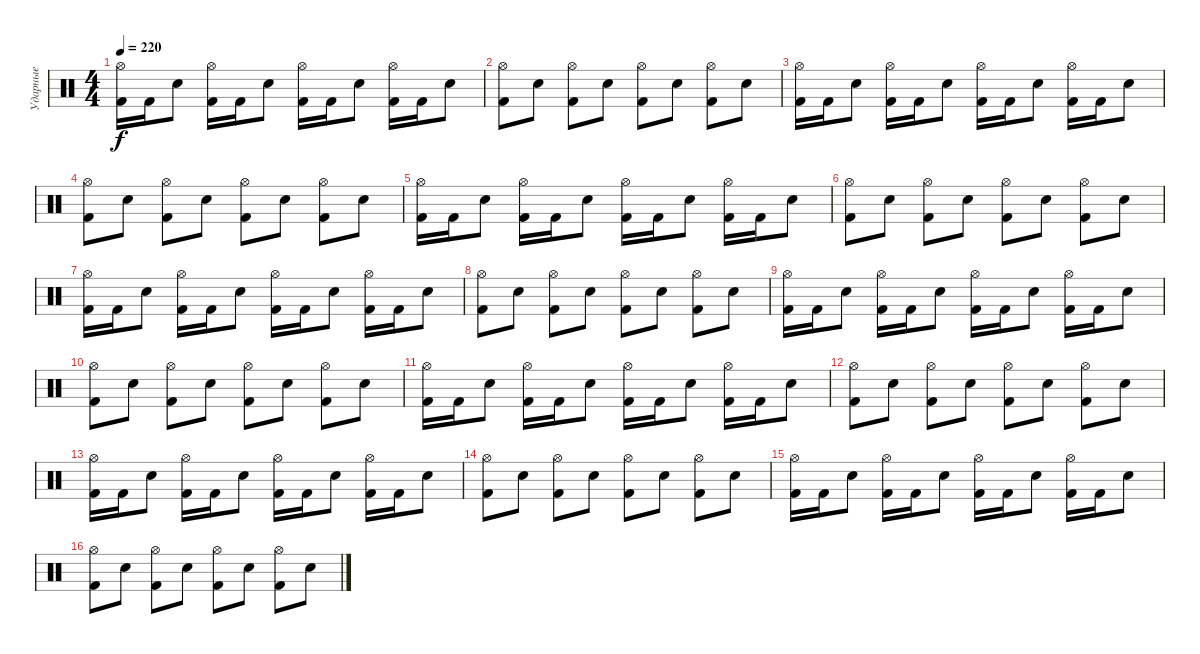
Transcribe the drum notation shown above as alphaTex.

\track ("Ударные" "Ударные") {instrument percussion}
\staff {score}
\articulation defaults
\ts (4 4)
\tempo 220
\clef neutral
\ks c
("Kick (hit) 2" "Hi-Hat (open)").16{dy f} "Kick (hit) 2".16 "Electric Snare (hit)".8 ("Kick (hit) 2" "Hi-Hat (open)").16 "Kick (hit) 2".16 "Electric Snare (hit)".8 ("Kick (hit) 2" "Hi-Hat (open)").16 "Kick (hit) 2".16 "Electric Snare (hit)".8 ("Kick (hit) 2" "Hi-Hat (open)").16 "Kick (hit) 2".16 "Electric Snare (hit)".8 |
("Kick (hit) 2" "Hi-Hat (open)").8 "Electric Snare (hit)".8 ("Kick (hit) 2" "Hi-Hat (open)").8 "Electric Snare (hit)".8 ("Kick (hit) 2" "Hi-Hat (open)").8 "Electric Snare (hit)".8 ("Kick (hit) 2" "Hi-Hat (open)").8 "Electric Snare (hit)".8 |
("Kick (hit) 2" "Hi-Hat (open)").16 "Kick (hit) 2".16 "Electric Snare (hit)".8 ("Kick (hit) 2" "Hi-Hat (open)").16 "Kick (hit) 2".16 "Electric Snare (hit)".8 ("Kick (hit) 2" "Hi-Hat (open)").16 "Kick (hit) 2".16 "Electric Snare (hit)".8 ("Kick (hit) 2" "Hi-Hat (open)").16 "Kick (hit) 2".16 "Electric Snare (hit)".8 |
("Kick (hit) 2" "Hi-Hat (open)").8 "Electric Snare (hit)".8 ("Kick (hit) 2" "Hi-Hat (open)").8 "Electric Snare (hit)".8 ("Kick (hit) 2" "Hi-Hat (open)").8 "Electric Snare (hit)".8 ("Kick (hit) 2" "Hi-Hat (open)").8 "Electric Snare (hit)".8 |
("Kick (hit) 2" "Hi-Hat (open)").16 "Kick (hit) 2".16 "Electric Snare (hit)".8 ("Kick (hit) 2" "Hi-Hat (open)").16 "Kick (hit) 2".16 "Electric Snare (hit)".8 ("Kick (hit) 2" "Hi-Hat (open)").16 "Kick (hit) 2".16 "Electric Snare (hit)".8 ("Kick (hit) 2" "Hi-Hat (open)").16 "Kick (hit) 2".16 "Electric Snare (hit)".8 |
("Kick (hit) 2" "Hi-Hat (open)").8 "Electric Snare (hit)".8 ("Kick (hit) 2" "Hi-Hat (open)").8 "Electric Snare (hit)".8 ("Kick (hit) 2" "Hi-Hat (open)").8 "Electric Snare (hit)".8 ("Kick (hit) 2" "Hi-Hat (open)").8 "Electric Snare (hit)".8 |
("Kick (hit) 2" "Hi-Hat (open)").16 "Kick (hit) 2".16 "Electric Snare (hit)".8 ("Kick (hit) 2" "Hi-Hat (open)").16 "Kick (hit) 2".16 "Electric Snare (hit)".8 ("Kick (hit) 2" "Hi-Hat (open)").16 "Kick (hit) 2".16 "Electric Snare (hit)".8 ("Kick (hit) 2" "Hi-Hat (open)").16 "Kick (hit) 2".16 "Electric Snare (hit)".8 |
("Kick (hit) 2" "Hi-Hat (open)").8 "Electric Snare (hit)".8 ("Kick (hit) 2" "Hi-Hat (open)").8 "Electric Snare (hit)".8 ("Kick (hit) 2" "Hi-Hat (open)").8 "Electric Snare (hit)".8 ("Kick (hit) 2" "Hi-Hat (open)").8 "Electric Snare (hit)".8 |
("Kick (hit) 2" "Hi-Hat (open)").16 "Kick (hit) 2".16 "Electric Snare (hit)".8 ("Kick (hit) 2" "Hi-Hat (open)").16 "Kick (hit) 2".16 "Electric Snare (hit)".8 ("Kick (hit) 2" "Hi-Hat (open)").16 "Kick (hit) 2".16 "Electric Snare (hit)".8 ("Kick (hit) 2" "Hi-Hat (open)").16 "Kick (hit) 2".16 "Electric Snare (hit)".8 |
("Kick (hit) 2" "Hi-Hat (open)").8 "Electric Snare (hit)".8 ("Kick (hit) 2" "Hi-Hat (open)").8 "Electric Snare (hit)".8 ("Kick (hit) 2" "Hi-Hat (open)").8 "Electric Snare (hit)".8 ("Kick (hit) 2" "Hi-Hat (open)").8 "Electric Snare (hit)".8 |
("Kick (hit) 2" "Hi-Hat (open)").16 "Kick (hit) 2".16 "Electric Snare (hit)".8 ("Kick (hit) 2" "Hi-Hat (open)").16 "Kick (hit) 2".16 "Electric Snare (hit)".8 ("Kick (hit) 2" "Hi-Hat (open)").16 "Kick (hit) 2".16 "Electric Snare (hit)".8 ("Kick (hit) 2" "Hi-Hat (open)").16 "Kick (hit) 2".16 "Electric Snare (hit)".8 |
("Kick (hit) 2" "Hi-Hat (open)").8 "Electric Snare (hit)".8 ("Kick (hit) 2" "Hi-Hat (open)").8 "Electric Snare (hit)".8 ("Kick (hit) 2" "Hi-Hat (open)").8 "Electric Snare (hit)".8 ("Kick (hit) 2" "Hi-Hat (open)").8 "Electric Snare (hit)".8 |
("Kick (hit) 2" "Hi-Hat (open)").16 "Kick (hit) 2".16 "Electric Snare (hit)".8 ("Kick (hit) 2" "Hi-Hat (open)").16 "Kick (hit) 2".16 "Electric Snare (hit)".8 ("Kick (hit) 2" "Hi-Hat (open)").16 "Kick (hit) 2".16 "Electric Snare (hit)".8 ("Kick (hit) 2" "Hi-Hat (open)").16 "Kick (hit) 2".16 "Electric Snare (hit)".8 |
("Kick (hit) 2" "Hi-Hat (open)").8 "Electric Snare (hit)".8 ("Kick (hit) 2" "Hi-Hat (open)").8 "Electric Snare (hit)".8 ("Kick (hit) 2" "Hi-Hat (open)").8 "Electric Snare (hit)".8 ("Kick (hit) 2" "Hi-Hat (open)").8 "Electric Snare (hit)".8 |
("Kick (hit) 2" "Hi-Hat (open)").16 "Kick (hit) 2".16 "Electric Snare (hit)".8 ("Kick (hit) 2" "Hi-Hat (open)").16 "Kick (hit) 2".16 "Electric Snare (hit)".8 ("Kick (hit) 2" "Hi-Hat (open)").16 "Kick (hit) 2".16 "Electric Snare (hit)".8 ("Kick (hit) 2" "Hi-Hat (open)").16 "Kick (hit) 2".16 "Electric Snare (hit)".8 |
("Kick (hit) 2" "Hi-Hat (open)").8 "Electric Snare (hit)".8 ("Kick (hit) 2" "Hi-Hat (open)").8 "Electric Snare (hit)".8 ("Kick (hit) 2" "Hi-Hat (open)").8 "Electric Snare (hit)".8 ("Kick (hit) 2" "Hi-Hat (open)").8 "Electric Snare (hit)".8
